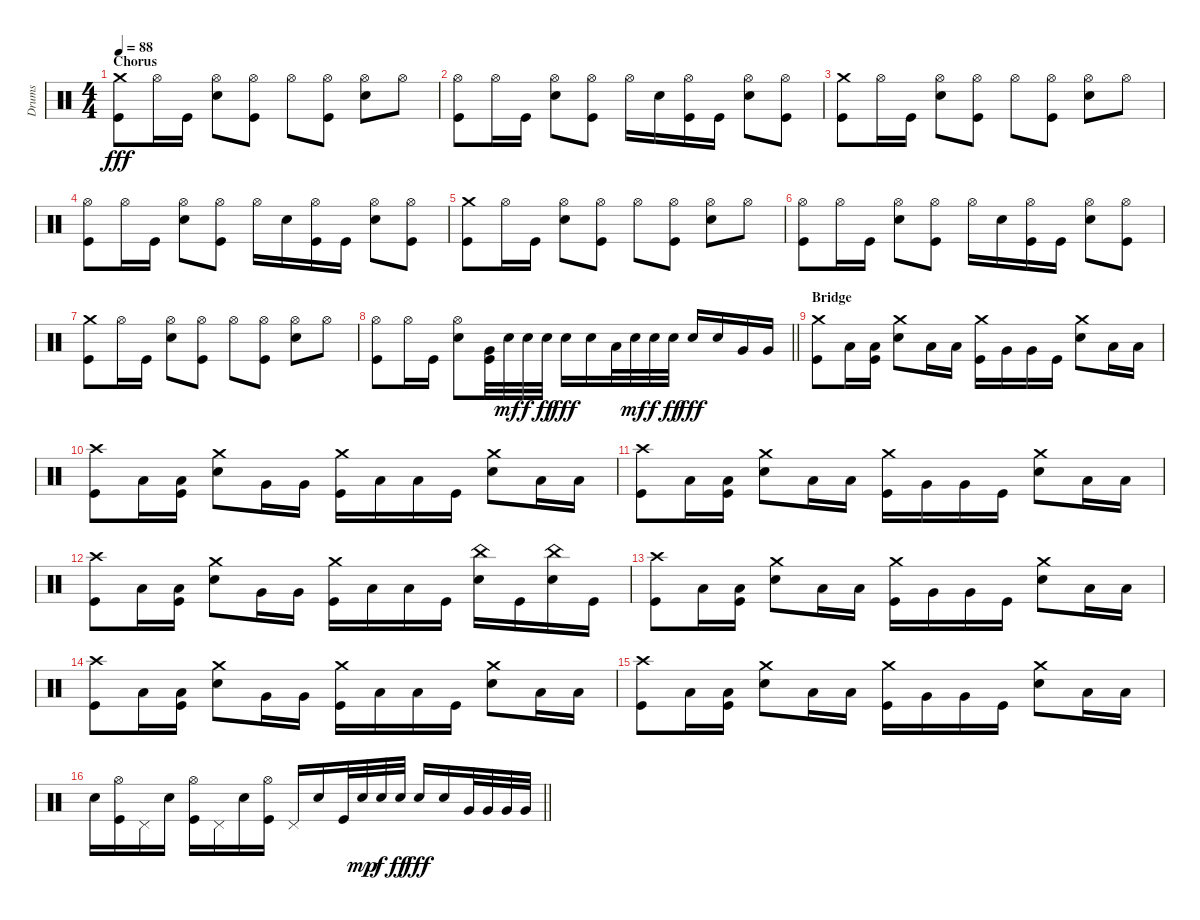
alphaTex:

\track ("Drums" "Drums") {instrument percussion}
\staff {score}
\articulation defaults
\ts (4 4)
\section ("" "Chorus")
\tempo 88
\clef neutral
\ks c
("Crash medium (hit)" "Kick (hit)").8{dy fff} "Hi-Hat (open)".16 "Kick (hit)".16 ("Hi-Hat (open)" "Snare (hit) 2").8 ("Hi-Hat (open)" "Kick (hit)").8 "Hi-Hat (open)".8 ("Hi-Hat (open)" "Kick (hit)").8 ("Hi-Hat (open)" "Snare (hit) 2").8 "Hi-Hat (open)".8 |
("Hi-Hat (open)" "Kick (hit)").8 "Hi-Hat (open)".16 "Kick (hit)".16 ("Hi-Hat (open)" "Snare (hit) 2").8 ("Hi-Hat (open)" "Kick (hit)").8 "Hi-Hat (open)".16 "Snare (hit) 2".16 ("Hi-Hat (open)" "Kick (hit)").16 "Kick (hit)".16 ("Hi-Hat (open)" "Snare (hit) 2").8 ("Hi-Hat (open)" "Kick (hit)").8 |
("Crash medium (hit)" "Kick (hit)").8 "Hi-Hat (open)".16 "Kick (hit)".16 ("Hi-Hat (open)" "Snare (hit) 2").8 ("Hi-Hat (open)" "Kick (hit)").8 "Hi-Hat (open)".8 ("Hi-Hat (open)" "Kick (hit)").8 ("Hi-Hat (open)" "Snare (hit) 2").8 "Hi-Hat (open)".8 |
("Hi-Hat (open)" "Kick (hit)").8 "Hi-Hat (open)".16 "Kick (hit)".16 ("Hi-Hat (open)" "Snare (hit) 2").8 ("Hi-Hat (open)" "Kick (hit)").8 "Hi-Hat (open)".16 "Snare (hit) 2".16 ("Hi-Hat (open)" "Kick (hit)").16 "Kick (hit)".16 ("Hi-Hat (open)" "Snare (hit) 2").8 ("Hi-Hat (open)" "Kick (hit)").8 |
("Crash medium (hit)" "Kick (hit)").8 "Hi-Hat (open)".16 "Kick (hit)".16 ("Hi-Hat (open)" "Snare (hit) 2").8 ("Hi-Hat (open)" "Kick (hit)").8 "Hi-Hat (open)".8 ("Hi-Hat (open)" "Kick (hit)").8 ("Hi-Hat (open)" "Snare (hit) 2").8 "Hi-Hat (open)".8 |
("Hi-Hat (open)" "Kick (hit)").8 "Hi-Hat (open)".16 "Kick (hit)".16 ("Hi-Hat (open)" "Snare (hit) 2").8 ("Hi-Hat (open)" "Kick (hit)").8 "Hi-Hat (open)".16 "Snare (hit) 2".16 ("Hi-Hat (open)" "Kick (hit)").16 "Kick (hit)".16 ("Hi-Hat (open)" "Snare (hit) 2").8 ("Hi-Hat (open)" "Kick (hit)").8 |
("Crash medium (hit)" "Kick (hit)").8 "Hi-Hat (open)".16 "Kick (hit)".16 ("Hi-Hat (open)" "Snare (hit) 2").8 ("Hi-Hat (open)" "Kick (hit)").8 "Hi-Hat (open)".8 ("Hi-Hat (open)" "Kick (hit)").8 ("Hi-Hat (open)" "Snare (hit) 2").8 "Hi-Hat (open)".8 |
\barLineRight lightlight
("Hi-Hat (open)" "Kick (hit)").8 "Hi-Hat (open)".16 "Kick (hit)".16 ("Hi-Hat (open)" "Snare (hit) 2").8 ("Very Low Tom (hit)" "Kick (hit)").32 "Snare (hit) 2".32{dy mf} "Snare (hit) 2".32{dy f} "Snare (hit) 2".32{dy ff} "Snare (hit) 2".16{dy fff} "Snare (hit) 2".16 "Low Tom (hit)".32 "Snare (hit) 2".32{dy mf} "Snare (hit) 2".32{dy f} "Snare (hit) 2".32{dy ff} "Snare (hit) 2".16{dy fff} "Snare (hit) 2".16 "Very Low Tom (hit)".16 "Very Low Tom (hit)".16 |
\section ("" "Bridge")
("Crash medium (hit)" "Kick (hit)").8 "Low Floor Tom (hit)".16 ("Low Floor Tom (hit)" "Kick (hit)").16 ("Crash medium (hit)" "Snare (hit) 2").8 "Low Tom (hit)".16 "Low Tom (hit)".16 ("Crash medium (hit)" "Kick (hit)").16 "Very Low Tom (hit)".16 "Very Low Tom (hit)".16 "Kick (hit)".16 ("Crash medium (hit)" "Snare (hit) 2").8 "Low Floor Tom (hit)".16 "Low Floor Tom (hit)".16 |
("Crash high (hit)" "Kick (hit)").8 "Low Floor Tom (hit)".16 ("Low Floor Tom (hit)" "Kick (hit)").16 ("Crash medium (hit)" "Snare (hit) 2").8 "Very Low Tom (hit)".16 "Very Low Tom (hit)".16 ("Crash medium (hit)" "Kick (hit)").16 "Low Tom (hit)".16 "Low Tom (hit)".16 "Kick (hit)".16 ("Crash medium (hit)" "Snare (hit) 2").8 "Low Floor Tom (hit)".16 "Low Floor Tom (hit)".16 |
("Crash high (hit)" "Kick (hit)").8 "Low Floor Tom (hit)".16 ("Low Floor Tom (hit)" "Kick (hit)").16 ("Crash medium (hit)" "Snare (hit) 2").8 "Low Tom (hit)".16 "Low Tom (hit)".16 ("Crash medium (hit)" "Kick (hit)").16 "Very Low Tom (hit)".16 "Very Low Tom (hit)".16 "Kick (hit)".16 ("Crash medium (hit)" "Snare (hit) 2").8 "Low Floor Tom (hit)".16 "Low Floor Tom (hit)".16 |
("Crash high (hit)" "Kick (hit)").8 "Low Floor Tom (hit)".16 ("Low Floor Tom (hit)" "Kick (hit)").16 ("Crash medium (hit)" "Snare (hit) 2").8 "Very Low Tom (hit)".16 "Very Low Tom (hit)".16 ("Crash medium (hit)" "Kick (hit)").16 "Low Tom (hit)".16 "Low Tom (hit)".16 "Kick (hit)".16 ("China (hit)" "Snare (hit) 2").16 "Kick (hit)".16 ("China (hit)" "Snare (hit) 2").16 "Kick (hit)".16 |
("Crash high (hit)" "Kick (hit)").8 "Low Floor Tom (hit)".16 ("Low Floor Tom (hit)" "Kick (hit)").16 ("Crash medium (hit)" "Snare (hit) 2").8 "Low Tom (hit)".16 "Low Tom (hit)".16 ("Crash medium (hit)" "Kick (hit)").16 "Very Low Tom (hit)".16 "Very Low Tom (hit)".16 "Kick (hit)".16 ("Crash medium (hit)" "Snare (hit) 2").8 "Low Floor Tom (hit)".16 "Low Floor Tom (hit)".16 |
("Crash high (hit)" "Kick (hit)").8 "Low Floor Tom (hit)".16 ("Low Floor Tom (hit)" "Kick (hit)").16 ("Crash medium (hit)" "Snare (hit) 2").8 "Very Low Tom (hit)".16 "Very Low Tom (hit)".16 ("Crash medium (hit)" "Kick (hit)").16 "Low Tom (hit)".16 "Low Tom (hit)".16 "Kick (hit)".16 ("Crash medium (hit)" "Snare (hit) 2").8 "Low Floor Tom (hit)".16 "Low Floor Tom (hit)".16 |
("Crash high (hit)" "Kick (hit)").8 "Low Floor Tom (hit)".16 ("Low Floor Tom (hit)" "Kick (hit)").16 ("Crash medium (hit)" "Snare (hit) 2").8 "Low Tom (hit)".16 "Low Tom (hit)".16 ("Crash medium (hit)" "Kick (hit)").16 "Very Low Tom (hit)".16 "Very Low Tom (hit)".16 "Kick (hit)".16 ("Crash medium (hit)" "Snare (hit) 2").8 "Low Floor Tom (hit)".16 "Low Floor Tom (hit)".16 |
\barLineRight lightlight "Snare (hit) 2".16
("Hi-Hat (open)" "Kick (hit)").16 "Pedal Hi-Hat (hit)".16 "Snare (hit) 2".16 ("Hi-Hat (open)" "Kick (hit)").16 "Pedal Hi-Hat (hit)".16 "Snare (hit) 2".16 ("Hi-Hat (open)" "Kick (hit)").16 "Pedal Hi-Hat (hit)".16 "Snare (hit) 2".16 "Kick (hit)".32 "Snare (hit) 2".32{dy mp} "Snare (hit) 2".32{dy f} "Snare (hit) 2".32{dy ff} "Snare (hit) 2".16{dy fff} "Snare (hit) 2".16 "Very Low Tom (hit)".32 "Very Low Tom (hit)".32 "Very Low Tom (hit)".32 "Very Low Tom (hit)".32
